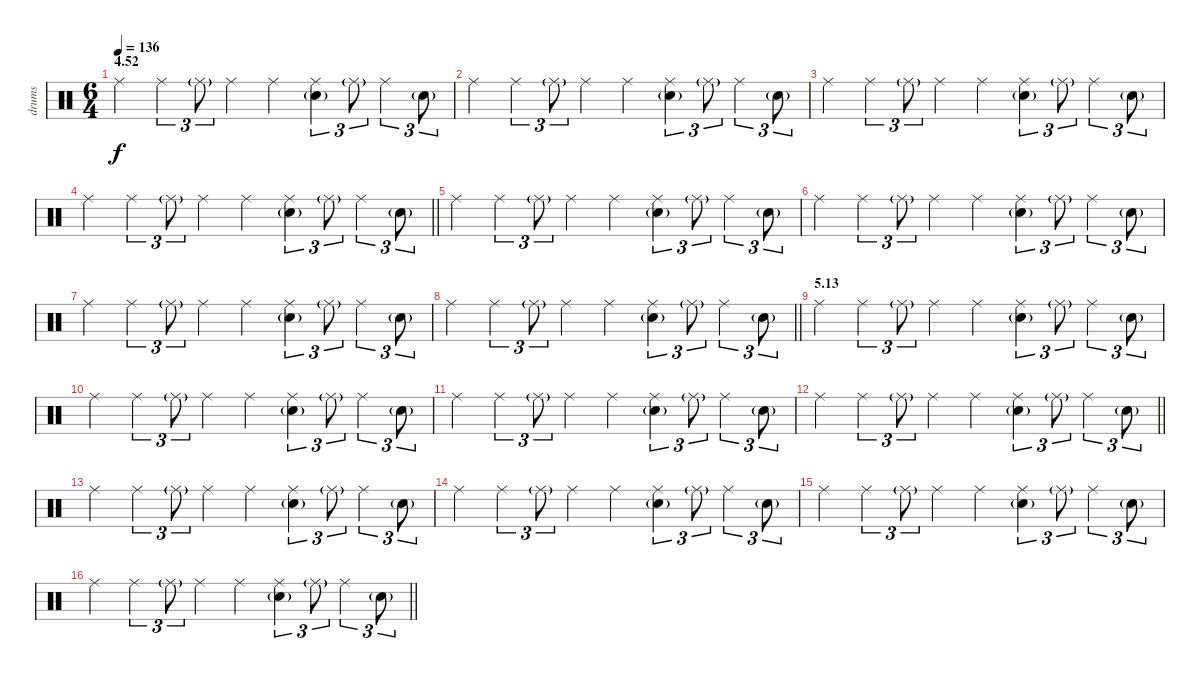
\track ("drums" "drums") {instrument percussion}
\staff {score}
\articulation defaults
\ts (6 4)
\section ("" "4.52")
\tempo 136
\clef neutral
\ks c "Ride (middle)".4{dy f} "Ride (middle)".4{tu (3 2)} "Ride (middle)"{g}.8{tu (3 2)} "Ride (middle)".4 "Ride (middle)".4
("Ride (middle)" "Electric Snare (hit)"{g}).4{tu (3 2)} "Ride (middle)"{g}.8{tu (3 2)} "Ride (middle)".4{tu (3 2)} "Electric Snare (hit)"{g}.8{tu (3 2)} |
"Ride (middle)".4 "Ride (middle)".4{tu (3 2)} "Ride (middle)"{g}.8{tu (3 2)} "Ride (middle)".4 "Ride (middle)".4 ("Ride (middle)" "Electric Snare (hit)"{g}).4{tu (3 2)} "Ride (middle)"{g}.8{tu (3 2)} "Ride (middle)".4{tu (3 2)} "Electric Snare (hit)"{g}.8{tu (3 2)} |
"Ride (middle)".4 "Ride (middle)".4{tu (3 2)} "Ride (middle)"{g}.8{tu (3 2)} "Ride (middle)".4 "Ride (middle)".4 ("Ride (middle)" "Electric Snare (hit)"{g}).4{tu (3 2)} "Ride (middle)"{g}.8{tu (3 2)} "Ride (middle)".4{tu (3 2)} "Electric Snare (hit)"{g}.8{tu (3 2)} |
\barLineRight lightlight "Ride (middle)".4 "Ride (middle)".4{tu (3 2)} "Ride (middle)"{g}.8{tu (3 2)} "Ride (middle)".4 "Ride (middle)".4
("Ride (middle)" "Electric Snare (hit)"{g}).4{tu (3 2)} "Ride (middle)"{g}.8{tu (3 2)} "Ride (middle)".4{tu (3 2)} "Electric Snare (hit)"{g}.8{tu (3 2)} |
"Ride (middle)".4 "Ride (middle)".4{tu (3 2)} "Ride (middle)"{g}.8{tu (3 2)} "Ride (middle)".4 "Ride (middle)".4 ("Ride (middle)" "Electric Snare (hit)"{g}).4{tu (3 2)} "Ride (middle)"{g}.8{tu (3 2)} "Ride (middle)".4{tu (3 2)} "Electric Snare (hit)"{g}.8{tu (3 2)} |
"Ride (middle)".4 "Ride (middle)".4{tu (3 2)} "Ride (middle)"{g}.8{tu (3 2)} "Ride (middle)".4 "Ride (middle)".4 ("Ride (middle)" "Electric Snare (hit)"{g}).4{tu (3 2)} "Ride (middle)"{g}.8{tu (3 2)} "Ride (middle)".4{tu (3 2)} "Electric Snare (hit)"{g}.8{tu (3 2)} |
"Ride (middle)".4 "Ride (middle)".4{tu (3 2)} "Ride (middle)"{g}.8{tu (3 2)} "Ride (middle)".4 "Ride (middle)".4 ("Ride (middle)" "Electric Snare (hit)"{g}).4{tu (3 2)} "Ride (middle)"{g}.8{tu (3 2)} "Ride (middle)".4{tu (3 2)} "Electric Snare (hit)"{g}.8{tu (3 2)} |
\barLineRight lightlight "Ride (middle)".4 "Ride (middle)".4{tu (3 2)} "Ride (middle)"{g}.8{tu (3 2)} "Ride (middle)".4 "Ride (middle)".4
("Ride (middle)" "Electric Snare (hit)"{g}).4{tu (3 2)} "Ride (middle)"{g}.8{tu (3 2)} "Ride (middle)".4{tu (3 2)} "Electric Snare (hit)"{g}.8{tu (3 2)} |
\section ("" "5.13")
"Ride (middle)".4 "Ride (middle)".4{tu (3 2)} "Ride (middle)"{g}.8{tu (3 2)} "Ride (middle)".4 "Ride (middle)".4 ("Ride (middle)" "Electric Snare (hit)"{g}).4{tu (3 2)} "Ride (middle)"{g}.8{tu (3 2)} "Ride (middle)".4{tu (3 2)} "Electric Snare (hit)"{g}.8{tu (3 2)} |
"Ride (middle)".4 "Ride (middle)".4{tu (3 2)} "Ride (middle)"{g}.8{tu (3 2)} "Ride (middle)".4 "Ride (middle)".4 ("Ride (middle)" "Electric Snare (hit)"{g}).4{tu (3 2)} "Ride (middle)"{g}.8{tu (3 2)} "Ride (middle)".4{tu (3 2)} "Electric Snare (hit)"{g}.8{tu (3 2)} |
"Ride (middle)".4 "Ride (middle)".4{tu (3 2)} "Ride (middle)"{g}.8{tu (3 2)} "Ride (middle)".4 "Ride (middle)".4 ("Ride (middle)" "Electric Snare (hit)"{g}).4{tu (3 2)} "Ride (middle)"{g}.8{tu (3 2)} "Ride (middle)".4{tu (3 2)} "Electric Snare (hit)"{g}.8{tu (3 2)} |
\barLineRight lightlight "Ride (middle)".4 "Ride (middle)".4{tu (3 2)} "Ride (middle)"{g}.8{tu (3 2)} "Ride (middle)".4 "Ride (middle)".4
("Ride (middle)" "Electric Snare (hit)"{g}).4{tu (3 2)} "Ride (middle)"{g}.8{tu (3 2)} "Ride (middle)".4{tu (3 2)} "Electric Snare (hit)"{g}.8{tu (3 2)} |
"Ride (middle)".4 "Ride (middle)".4{tu (3 2)} "Ride (middle)"{g}.8{tu (3 2)} "Ride (middle)".4 "Ride (middle)".4 ("Ride (middle)" "Electric Snare (hit)"{g}).4{tu (3 2)} "Ride (middle)"{g}.8{tu (3 2)} "Ride (middle)".4{tu (3 2)} "Electric Snare (hit)"{g}.8{tu (3 2)} |
"Ride (middle)".4 "Ride (middle)".4{tu (3 2)} "Ride (middle)"{g}.8{tu (3 2)} "Ride (middle)".4 "Ride (middle)".4 ("Ride (middle)" "Electric Snare (hit)"{g}).4{tu (3 2)} "Ride (middle)"{g}.8{tu (3 2)} "Ride (middle)".4{tu (3 2)} "Electric Snare (hit)"{g}.8{tu (3 2)} |
"Ride (middle)".4 "Ride (middle)".4{tu (3 2)} "Ride (middle)"{g}.8{tu (3 2)} "Ride (middle)".4 "Ride (middle)".4 ("Ride (middle)" "Electric Snare (hit)"{g}).4{tu (3 2)} "Ride (middle)"{g}.8{tu (3 2)} "Ride (middle)".4{tu (3 2)} "Electric Snare (hit)"{g}.8{tu (3 2)} |
\barLineRight lightlight "Ride (middle)".4 "Ride (middle)".4{tu (3 2)} "Ride (middle)"{g}.8{tu (3 2)} "Ride (middle)".4 "Ride (middle)".4
("Ride (middle)" "Electric Snare (hit)"{g}).4{tu (3 2)} "Ride (middle)"{g}.8{tu (3 2)} "Ride (middle)".4{tu (3 2)} "Electric Snare (hit)"{g}.8{tu (3 2)}
